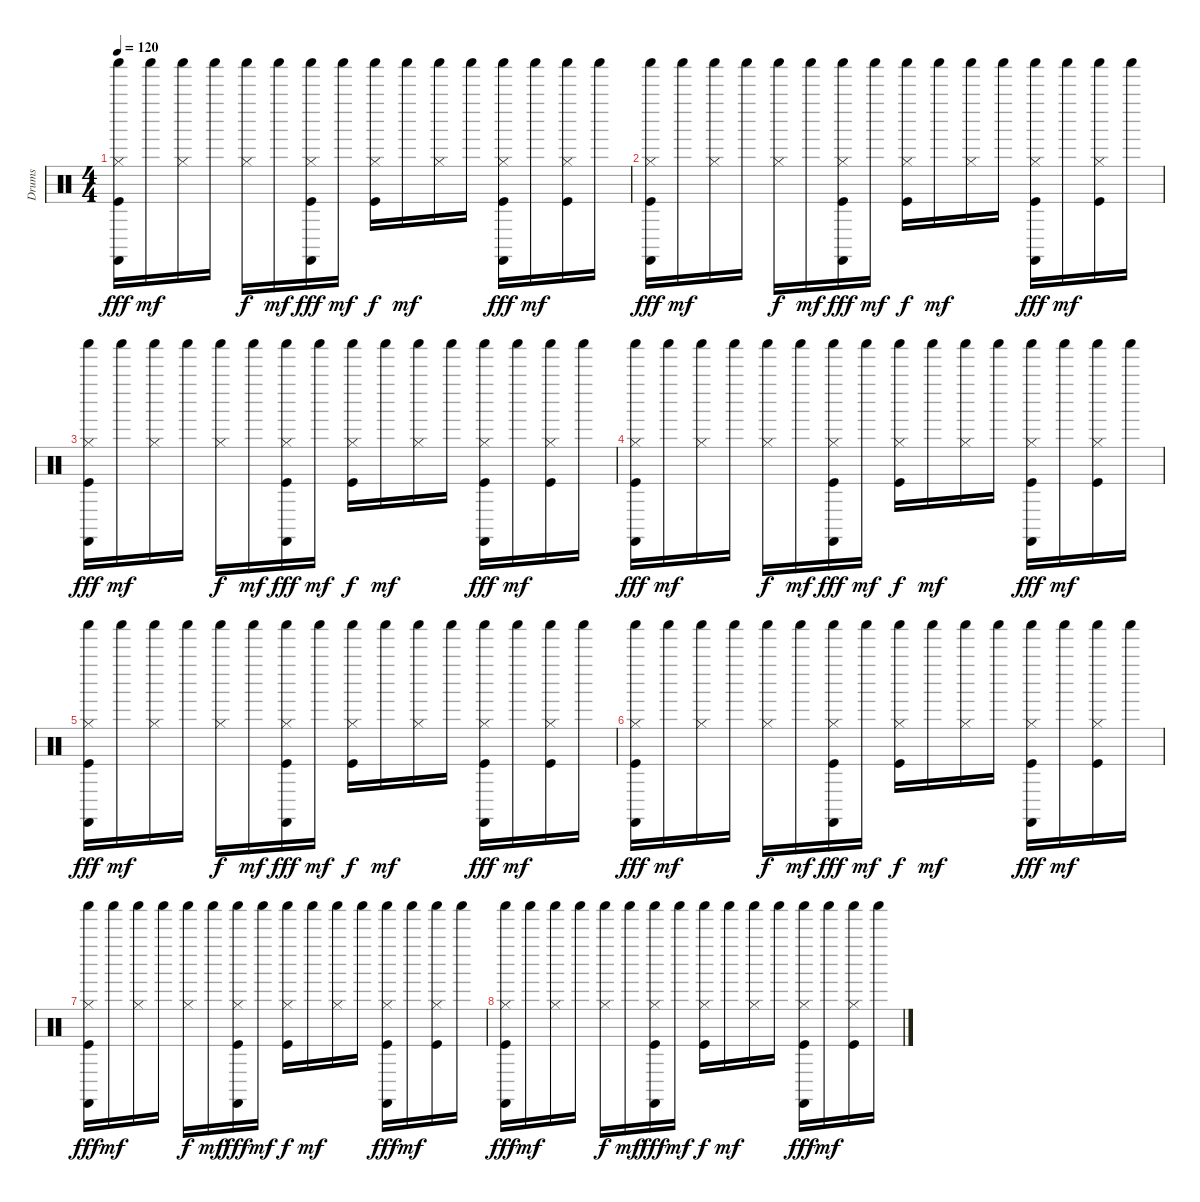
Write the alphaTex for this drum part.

\track ("Drums" "Drums") {instrument percussion}
\staff {score}
\articulation defaults
\ts (4 4)
\tempo 120
\clef neutral
\ks c
("Shaker (hit)" "Hi-Hat (closed)" "Castanets (hit)" "Kick (hit)").16{dy fff} "Shaker (hit)".16{dy mf} ("Shaker (hit)" "Hi-Hat (closed)").16 "Shaker (hit)".16 ("Shaker (hit)" "Hi-Hat (closed)").16{dy f} "Shaker (hit)".16{dy mf} ("Shaker (hit)" "Hi-Hat (closed)" "Castanets (hit)" "Kick (hit)").16{dy fff} "Shaker (hit)".16{dy mf} ("Shaker (hit)" "Hi-Hat (closed)" "Kick (hit)").16{dy f} "Shaker (hit)".16{dy mf} ("Shaker (hit)" "Hi-Hat (closed)").16 "Shaker (hit)".16 ("Shaker (hit)" "Hi-Hat (closed)" "Castanets (hit)" "Kick (hit)").16{dy fff} "Shaker (hit)".16{dy mf} ("Shaker (hit)" "Hi-Hat (closed)" "Kick (hit)").16 "Shaker (hit)".16 |
("Shaker (hit)" "Hi-Hat (closed)" "Castanets (hit)" "Kick (hit)").16{dy fff} "Shaker (hit)".16{dy mf} ("Shaker (hit)" "Hi-Hat (closed)").16 "Shaker (hit)".16 ("Shaker (hit)" "Hi-Hat (closed)").16{dy f} "Shaker (hit)".16{dy mf} ("Shaker (hit)" "Hi-Hat (closed)" "Castanets (hit)" "Kick (hit)").16{dy fff} "Shaker (hit)".16{dy mf} ("Shaker (hit)" "Hi-Hat (closed)" "Kick (hit)").16{dy f} "Shaker (hit)".16{dy mf} ("Shaker (hit)" "Hi-Hat (closed)").16 "Shaker (hit)".16 ("Shaker (hit)" "Hi-Hat (closed)" "Castanets (hit)" "Kick (hit)").16{dy fff} "Shaker (hit)".16{dy mf} ("Shaker (hit)" "Hi-Hat (closed)" "Kick (hit)").16 "Shaker (hit)".16 |
("Shaker (hit)" "Hi-Hat (closed)" "Castanets (hit)" "Kick (hit)").16{dy fff} "Shaker (hit)".16{dy mf} ("Shaker (hit)" "Hi-Hat (closed)").16 "Shaker (hit)".16 ("Shaker (hit)" "Hi-Hat (closed)").16{dy f} "Shaker (hit)".16{dy mf} ("Shaker (hit)" "Hi-Hat (closed)" "Castanets (hit)" "Kick (hit)").16{dy fff} "Shaker (hit)".16{dy mf} ("Shaker (hit)" "Hi-Hat (closed)" "Kick (hit)").16{dy f} "Shaker (hit)".16{dy mf} ("Shaker (hit)" "Hi-Hat (closed)").16 "Shaker (hit)".16 ("Shaker (hit)" "Hi-Hat (closed)" "Castanets (hit)" "Kick (hit)").16{dy fff} "Shaker (hit)".16{dy mf} ("Shaker (hit)" "Hi-Hat (closed)" "Kick (hit)").16 "Shaker (hit)".16 |
("Shaker (hit)" "Hi-Hat (closed)" "Castanets (hit)" "Kick (hit)").16{dy fff} "Shaker (hit)".16{dy mf} ("Shaker (hit)" "Hi-Hat (closed)").16 "Shaker (hit)".16 ("Shaker (hit)" "Hi-Hat (closed)").16{dy f} "Shaker (hit)".16{dy mf} ("Shaker (hit)" "Hi-Hat (closed)" "Castanets (hit)" "Kick (hit)").16{dy fff} "Shaker (hit)".16{dy mf} ("Shaker (hit)" "Hi-Hat (closed)" "Kick (hit)").16{dy f} "Shaker (hit)".16{dy mf} ("Shaker (hit)" "Hi-Hat (closed)").16 "Shaker (hit)".16 ("Shaker (hit)" "Hi-Hat (closed)" "Castanets (hit)" "Kick (hit)").16{dy fff} "Shaker (hit)".16{dy mf} ("Shaker (hit)" "Hi-Hat (closed)" "Kick (hit)").16 "Shaker (hit)".16 |
("Shaker (hit)" "Hi-Hat (closed)" "Castanets (hit)" "Kick (hit)").16{dy fff} "Shaker (hit)".16{dy mf} ("Shaker (hit)" "Hi-Hat (closed)").16 "Shaker (hit)".16 ("Shaker (hit)" "Hi-Hat (closed)").16{dy f} "Shaker (hit)".16{dy mf} ("Shaker (hit)" "Hi-Hat (closed)" "Castanets (hit)" "Kick (hit)").16{dy fff} "Shaker (hit)".16{dy mf} ("Shaker (hit)" "Hi-Hat (closed)" "Kick (hit)").16{dy f} "Shaker (hit)".16{dy mf} ("Shaker (hit)" "Hi-Hat (closed)").16 "Shaker (hit)".16 ("Shaker (hit)" "Hi-Hat (closed)" "Castanets (hit)" "Kick (hit)").16{dy fff} "Shaker (hit)".16{dy mf} ("Shaker (hit)" "Hi-Hat (closed)" "Kick (hit)").16 "Shaker (hit)".16 |
("Shaker (hit)" "Hi-Hat (closed)" "Castanets (hit)" "Kick (hit)").16{dy fff} "Shaker (hit)".16{dy mf} ("Shaker (hit)" "Hi-Hat (closed)").16 "Shaker (hit)".16 ("Shaker (hit)" "Hi-Hat (closed)").16{dy f} "Shaker (hit)".16{dy mf} ("Shaker (hit)" "Hi-Hat (closed)" "Castanets (hit)" "Kick (hit)").16{dy fff} "Shaker (hit)".16{dy mf} ("Shaker (hit)" "Hi-Hat (closed)" "Kick (hit)").16{dy f} "Shaker (hit)".16{dy mf} ("Shaker (hit)" "Hi-Hat (closed)").16 "Shaker (hit)".16 ("Shaker (hit)" "Hi-Hat (closed)" "Castanets (hit)" "Kick (hit)").16{dy fff} "Shaker (hit)".16{dy mf} ("Shaker (hit)" "Hi-Hat (closed)" "Kick (hit)").16 "Shaker (hit)".16 |
("Shaker (hit)" "Hi-Hat (closed)" "Castanets (hit)" "Kick (hit)").16{dy fff} "Shaker (hit)".16{dy mf} ("Shaker (hit)" "Hi-Hat (closed)").16 "Shaker (hit)".16 ("Shaker (hit)" "Hi-Hat (closed)").16{dy f} "Shaker (hit)".16{dy mf} ("Shaker (hit)" "Hi-Hat (closed)" "Castanets (hit)" "Kick (hit)").16{dy fff} "Shaker (hit)".16{dy mf} ("Shaker (hit)" "Hi-Hat (closed)" "Kick (hit)").16{dy f} "Shaker (hit)".16{dy mf} ("Shaker (hit)" "Hi-Hat (closed)").16 "Shaker (hit)".16 ("Shaker (hit)" "Hi-Hat (closed)" "Castanets (hit)" "Kick (hit)").16{dy fff} "Shaker (hit)".16{dy mf} ("Shaker (hit)" "Hi-Hat (closed)" "Kick (hit)").16 "Shaker (hit)".16 |
("Shaker (hit)" "Hi-Hat (closed)" "Castanets (hit)" "Kick (hit)").16{dy fff} "Shaker (hit)".16{dy mf} ("Shaker (hit)" "Hi-Hat (closed)").16 "Shaker (hit)".16 ("Shaker (hit)" "Hi-Hat (closed)").16{dy f} "Shaker (hit)".16{dy mf} ("Shaker (hit)" "Hi-Hat (closed)" "Castanets (hit)" "Kick (hit)").16{dy fff} "Shaker (hit)".16{dy mf} ("Shaker (hit)" "Hi-Hat (closed)" "Kick (hit)").16{dy f} "Shaker (hit)".16{dy mf} ("Shaker (hit)" "Hi-Hat (closed)").16 "Shaker (hit)".16 ("Shaker (hit)" "Hi-Hat (closed)" "Castanets (hit)" "Kick (hit)").16{dy fff} "Shaker (hit)".16{dy mf} ("Shaker (hit)" "Hi-Hat (closed)" "Kick (hit)").16 "Shaker (hit)".16
